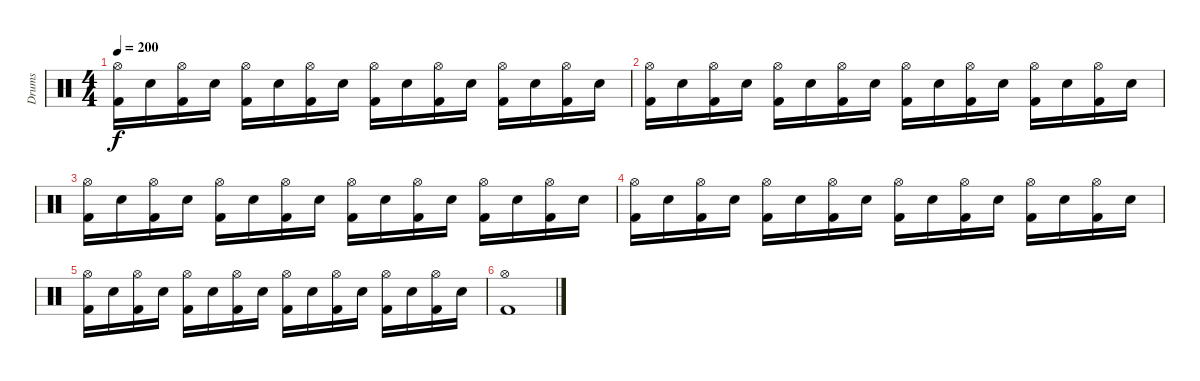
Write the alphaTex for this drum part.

\track ("Drums" "Drums") {instrument percussion}
\staff {score}
\articulation defaults
\ts (4 4)
\tempo 200
\clef neutral
\ks c
("Hi-Hat (open)" "Kick (hit) 2").16{dy f} "Electric Snare (hit)".16 ("Hi-Hat (open)" "Kick (hit) 2").16 "Electric Snare (hit)".16 ("Hi-Hat (open)" "Kick (hit) 2").16 "Electric Snare (hit)".16 ("Hi-Hat (open)" "Kick (hit) 2").16 "Electric Snare (hit)".16 ("Hi-Hat (open)" "Kick (hit) 2").16 "Electric Snare (hit)".16 ("Hi-Hat (open)" "Kick (hit) 2").16 "Electric Snare (hit)".16 ("Hi-Hat (open)" "Kick (hit) 2").16 "Electric Snare (hit)".16 ("Hi-Hat (open)" "Kick (hit) 2").16 "Electric Snare (hit)".16 |
("Hi-Hat (open)" "Kick (hit) 2").16 "Electric Snare (hit)".16 ("Hi-Hat (open)" "Kick (hit) 2").16 "Electric Snare (hit)".16 ("Hi-Hat (open)" "Kick (hit) 2").16 "Electric Snare (hit)".16 ("Hi-Hat (open)" "Kick (hit) 2").16 "Electric Snare (hit)".16 ("Hi-Hat (open)" "Kick (hit) 2").16 "Electric Snare (hit)".16 ("Hi-Hat (open)" "Kick (hit) 2").16 "Electric Snare (hit)".16 ("Hi-Hat (open)" "Kick (hit) 2").16 "Electric Snare (hit)".16 ("Hi-Hat (open)" "Kick (hit) 2").16 "Electric Snare (hit)".16 |
("Hi-Hat (open)" "Kick (hit) 2").16 "Electric Snare (hit)".16 ("Hi-Hat (open)" "Kick (hit) 2").16 "Electric Snare (hit)".16 ("Hi-Hat (open)" "Kick (hit) 2").16 "Electric Snare (hit)".16 ("Hi-Hat (open)" "Kick (hit) 2").16 "Electric Snare (hit)".16 ("Hi-Hat (open)" "Kick (hit) 2").16 "Electric Snare (hit)".16 ("Hi-Hat (open)" "Kick (hit) 2").16 "Electric Snare (hit)".16 ("Hi-Hat (open)" "Kick (hit) 2").16 "Electric Snare (hit)".16 ("Hi-Hat (open)" "Kick (hit) 2").16 "Electric Snare (hit)".16 |
("Hi-Hat (open)" "Kick (hit) 2").16 "Electric Snare (hit)".16 ("Hi-Hat (open)" "Kick (hit) 2").16 "Electric Snare (hit)".16 ("Hi-Hat (open)" "Kick (hit) 2").16 "Electric Snare (hit)".16 ("Hi-Hat (open)" "Kick (hit) 2").16 "Electric Snare (hit)".16 ("Hi-Hat (open)" "Kick (hit) 2").16 "Electric Snare (hit)".16 ("Hi-Hat (open)" "Kick (hit) 2").16 "Electric Snare (hit)".16 ("Hi-Hat (open)" "Kick (hit) 2").16 "Electric Snare (hit)".16 ("Hi-Hat (open)" "Kick (hit) 2").16 "Electric Snare (hit)".16 |
("Hi-Hat (open)" "Kick (hit) 2").16 "Electric Snare (hit)".16 ("Hi-Hat (open)" "Kick (hit) 2").16 "Electric Snare (hit)".16 ("Hi-Hat (open)" "Kick (hit) 2").16 "Electric Snare (hit)".16 ("Hi-Hat (open)" "Kick (hit) 2").16 "Electric Snare (hit)".16 ("Hi-Hat (open)" "Kick (hit) 2").16 "Electric Snare (hit)".16 ("Hi-Hat (open)" "Kick (hit) 2").16 "Electric Snare (hit)".16 ("Hi-Hat (open)" "Kick (hit) 2").16 "Electric Snare (hit)".16 ("Hi-Hat (open)" "Kick (hit) 2").16 "Electric Snare (hit)".16 |
("Hi-Hat (open)" "Kick (hit) 2").1
